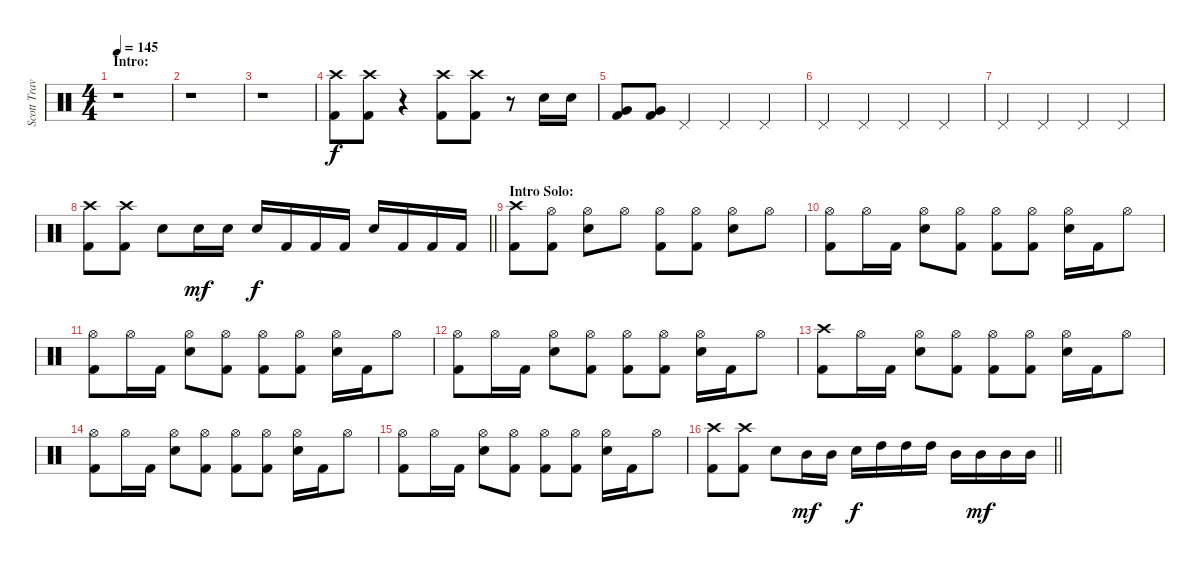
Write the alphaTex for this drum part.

\track ("Scott Travis" "Scott Trav") {instrument percussion}
\staff {score}
\articulation defaults
\ts (4 4)
\section ("" "Intro:")
\tempo 145
\clef neutral
\ks c
r.1{dy f} |
r.1 |
r.1 |
("Crash high (hit)" "Kick (hit) 2").8 ("Crash high (hit)" "Kick (hit) 2").8 r.4 ("Crash high (hit)" "Kick (hit) 2").8 ("Crash high (hit)" "Kick (hit) 2").8 r.8 "Snare (hit) 2".16 "Snare (hit) 2".16 |
("Very Low Tom (hit)" "Kick (hit) 2").8 ("Very Low Tom (hit)" "Kick (hit) 2").8 "Pedal Hi-Hat (hit)".4 "Pedal Hi-Hat (hit)".4 "Pedal Hi-Hat (hit)".4 |
"Pedal Hi-Hat (hit)".4 "Pedal Hi-Hat (hit)".4 "Pedal Hi-Hat (hit)".4 "Pedal Hi-Hat (hit)".4 |
"Pedal Hi-Hat (hit)".4 "Pedal Hi-Hat (hit)".4 "Pedal Hi-Hat (hit)".4 "Pedal Hi-Hat (hit)".4 |
\barLineRight lightlight
("Crash high (hit)" "Kick (hit) 2").8 ("Crash high (hit)" "Kick (hit) 2").8 "Snare (hit) 2".8 "Snare (hit) 2".16{dy mf} "Snare (hit) 2".16 "Snare (hit) 2".16{dy f} "Kick (hit) 2".16 "Kick (hit) 2".16 "Kick (hit) 2".16 "Snare (hit) 2".16 "Kick (hit) 2".16 "Kick (hit) 2".16 "Kick (hit) 2".16 |
\section ("" "Intro Solo:")
("Crash high (hit)" "Kick (hit) 2").8 ("Hi-Hat (open)" "Kick (hit) 2").8 ("Hi-Hat (open)" "Snare (hit) 2").8 "Hi-Hat (open)".8 ("Hi-Hat (open)" "Kick (hit) 2").8 ("Hi-Hat (open)" "Kick (hit) 2").8 ("Hi-Hat (open)" "Snare (hit) 2").8 "Hi-Hat (open)".8 |
("Hi-Hat (open)" "Kick (hit) 2").8 "Hi-Hat (open)".16 "Kick (hit) 2".16 ("Hi-Hat (open)" "Snare (hit) 2").8 ("Hi-Hat (open)" "Kick (hit) 2").8 ("Hi-Hat (open)" "Kick (hit) 2").8 ("Hi-Hat (open)" "Kick (hit) 2").8 ("Hi-Hat (open)" "Snare (hit) 2").16 "Kick (hit) 2".16 "Hi-Hat (open)".8 |
("Hi-Hat (open)" "Kick (hit) 2").8 "Hi-Hat (open)".16 "Kick (hit) 2".16 ("Hi-Hat (open)" "Snare (hit) 2").8 ("Hi-Hat (open)" "Kick (hit) 2").8 ("Hi-Hat (open)" "Kick (hit) 2").8 ("Hi-Hat (open)" "Kick (hit) 2").8 ("Hi-Hat (open)" "Snare (hit) 2").16 "Kick (hit) 2".16 "Hi-Hat (open)".8 |
("Hi-Hat (open)" "Kick (hit) 2").8 "Hi-Hat (open)".16 "Kick (hit) 2".16 ("Hi-Hat (open)" "Snare (hit) 2").8 ("Hi-Hat (open)" "Kick (hit) 2").8 ("Hi-Hat (open)" "Kick (hit) 2").8 ("Hi-Hat (open)" "Kick (hit) 2").8 ("Hi-Hat (open)" "Snare (hit) 2").16 "Kick (hit) 2".16 "Hi-Hat (open)".8 |
("Crash high (hit)" "Kick (hit) 2").8 "Hi-Hat (open)".16 "Kick (hit) 2".16 ("Hi-Hat (open)" "Snare (hit) 2").8 ("Hi-Hat (open)" "Kick (hit) 2").8 ("Hi-Hat (open)" "Kick (hit) 2").8 ("Hi-Hat (open)" "Kick (hit) 2").8 ("Hi-Hat (open)" "Snare (hit) 2").16 "Kick (hit) 2".16 "Hi-Hat (open)".8 |
("Hi-Hat (open)" "Kick (hit) 2").8 "Hi-Hat (open)".16 "Kick (hit) 2".16 ("Hi-Hat (open)" "Snare (hit) 2").8 ("Hi-Hat (open)" "Kick (hit) 2").8 ("Hi-Hat (open)" "Kick (hit) 2").8 ("Hi-Hat (open)" "Kick (hit) 2").8 ("Hi-Hat (open)" "Snare (hit) 2").16 "Kick (hit) 2".16 "Hi-Hat (open)".8 |
("Hi-Hat (open)" "Kick (hit) 2").8 "Hi-Hat (open)".16 "Kick (hit) 2".16 ("Hi-Hat (open)" "Snare (hit) 2").8 ("Hi-Hat (open)" "Kick (hit) 2").8 ("Hi-Hat (open)" "Kick (hit) 2").8 ("Hi-Hat (open)" "Kick (hit) 2").8 ("Hi-Hat (open)" "Snare (hit) 2").16 "Kick (hit) 2".16 "Hi-Hat (open)".8 |
\barLineRight lightlight
("Crash high (hit)" "Kick (hit) 2").8 ("Crash high (hit)" "Kick (hit) 2").8 "Snare (hit) 2".8 "Mid Tom (hit)".16{dy mf} "Mid Tom (hit)".16 "Snare (hit) 2".16{dy f} "High Tom (hit)".16 "High Tom (hit)".16 "High Tom (hit)".16 "Mid Tom (hit)".16 "Mid Tom (hit)".16{dy mf} "Mid Tom (hit)".16 "Mid Tom (hit)".16
